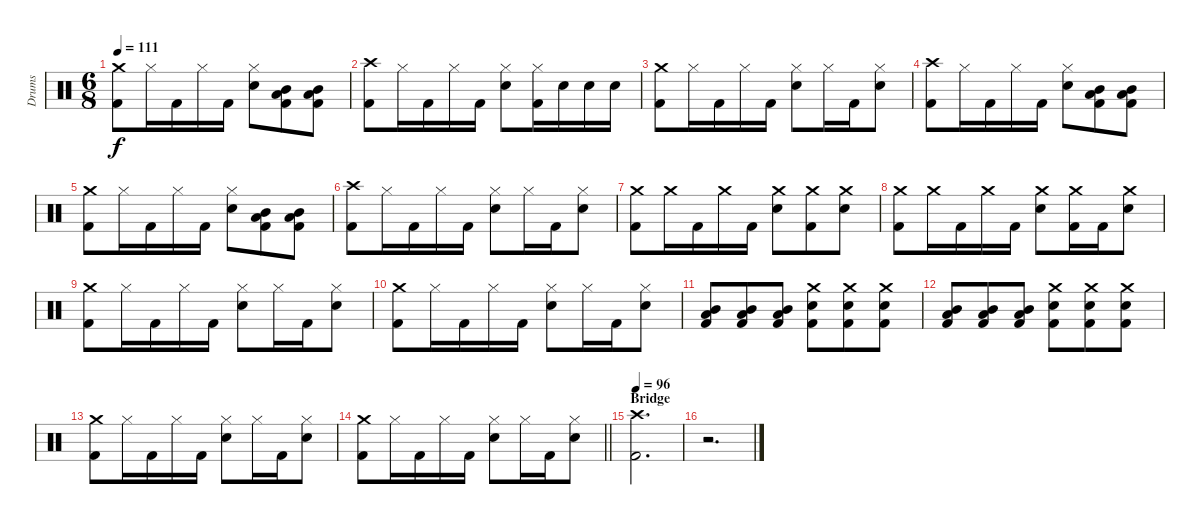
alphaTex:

\track ("Drums" "Drums") {instrument percussion}
\staff {score}
\articulation defaults
\ts (6 8)
\tempo 111
\clef neutral
\ks c
("Crash medium (hit)" "Kick (hit) 2").8{dy f} "Hi-Hat (closed)".16 "Kick (hit) 2".16 "Hi-Hat (closed)".16 "Kick (hit) 2".16 ("Hi-Hat (closed)" "Snare (hit) 2").8 ("Low Tom (hit)" "Mid Tom (hit)" "Kick (hit) 2").8 ("Mid Tom (hit)" "Low Tom (hit)" "Kick (hit) 2").8 |
("Crash high (hit)" "Kick (hit) 2").8 "Hi-Hat (closed)".16 "Kick (hit) 2".16 "Hi-Hat (closed)".16 "Kick (hit) 2".16 ("Hi-Hat (closed)" "Snare (hit) 2").8 ("Kick (hit) 2" "Hi-Hat (closed)").16 "Snare (hit) 2".16 "Snare (hit) 2".16 "Snare (hit) 2".16 |
("Crash medium (hit)" "Kick (hit) 2").8 "Hi-Hat (closed)".16 "Kick (hit) 2".16 "Hi-Hat (closed)".16 "Kick (hit) 2".16 ("Snare (hit) 2" "Hi-Hat (closed)").8 "Hi-Hat (closed)".16 "Kick (hit) 2".16 ("Hi-Hat (closed)" "Snare (hit) 2").8 |
("Crash high (hit)" "Kick (hit) 2").8 "Hi-Hat (closed)".16 "Kick (hit) 2".16 "Hi-Hat (closed)".16 "Kick (hit) 2".16 ("Hi-Hat (closed)" "Snare (hit) 2").8 ("Low Tom (hit)" "Mid Tom (hit)" "Kick (hit) 2").8 ("Mid Tom (hit)" "Low Tom (hit)" "Kick (hit) 2").8 |
("Crash medium (hit)" "Kick (hit) 2").8 "Hi-Hat (closed)".16 "Kick (hit) 2".16 "Hi-Hat (closed)".16 "Kick (hit) 2".16 ("Hi-Hat (closed)" "Snare (hit) 2").8 ("Low Tom (hit)" "Mid Tom (hit)" "Kick (hit) 2").8 ("Mid Tom (hit)" "Low Tom (hit)" "Kick (hit) 2").8 |
("Crash high (hit)" "Kick (hit) 2").8 "Hi-Hat (closed)".16 "Kick (hit) 2".16 "Hi-Hat (closed)".16 "Kick (hit) 2".16 ("Snare (hit) 2" "Hi-Hat (closed)").8 "Hi-Hat (closed)".16 "Kick (hit) 2".16 ("Hi-Hat (closed)" "Snare (hit) 2").8 |
("Crash medium (hit)" "Kick (hit) 2").8 "Crash medium (hit)".16 "Kick (hit) 2".16 "Crash medium (hit)".16 "Kick (hit) 2".16 ("Crash medium (hit)" "Snare (hit) 2").8 ("Crash medium (hit)" "Kick (hit) 2").8 ("Crash medium (hit)" "Snare (hit) 2").8 |
("Crash medium (hit)" "Kick (hit) 2").8 "Crash medium (hit)".16 "Kick (hit) 2".16 "Crash medium (hit)".16 "Kick (hit) 2".16 ("Crash medium (hit)" "Snare (hit) 2").8 ("Crash medium (hit)" "Kick (hit) 2").16 "Kick (hit) 2".16 ("Crash medium (hit)" "Snare (hit) 2").8 |
("Crash medium (hit)" "Kick (hit) 2").8 "Hi-Hat (closed)".16 "Kick (hit) 2".16 "Hi-Hat (closed)".16 "Kick (hit) 2".16 ("Snare (hit) 2" "Hi-Hat (closed)").8 "Hi-Hat (closed)".16 "Kick (hit) 2".16 ("Hi-Hat (closed)" "Snare (hit) 2").8 |
("Crash medium (hit)" "Kick (hit) 2").8 "Hi-Hat (closed)".16 "Kick (hit) 2".16 "Hi-Hat (closed)".16 "Kick (hit) 2".16 ("Snare (hit) 2" "Hi-Hat (closed)").8 "Hi-Hat (closed)".16 "Kick (hit) 2".16 ("Hi-Hat (closed)" "Snare (hit) 2").8 |
("Kick (hit) 2" "Low Tom (hit)" "Mid Tom (hit)").8 ("Kick (hit) 2" "Low Tom (hit)" "Mid Tom (hit)").8 ("Kick (hit) 2" "Low Tom (hit)" "Mid Tom (hit)").8 ("Kick (hit) 2" "Snare (hit) 2" "Crash medium (hit)").8 ("Kick (hit) 2" "Snare (hit) 2" "Crash medium (hit)").8 ("Kick (hit) 2" "Snare (hit) 2" "Crash medium (hit)").8 |
("Kick (hit) 2" "Low Tom (hit)" "Mid Tom (hit)").8 ("Kick (hit) 2" "Low Tom (hit)" "Mid Tom (hit)").8 ("Kick (hit) 2" "Low Tom (hit)" "Mid Tom (hit)").8 ("Kick (hit) 2" "Snare (hit) 2" "Crash medium (hit)").8 ("Kick (hit) 2" "Snare (hit) 2" "Crash medium (hit)").8 ("Kick (hit) 2" "Snare (hit) 2" "Crash medium (hit)").8 |
("Crash medium (hit)" "Kick (hit) 2").8 "Hi-Hat (closed)".16 "Kick (hit) 2".16 "Hi-Hat (closed)".16 "Kick (hit) 2".16 ("Snare (hit) 2" "Hi-Hat (closed)").8 "Hi-Hat (closed)".16 "Kick (hit) 2".16 ("Hi-Hat (closed)" "Snare (hit) 2").8 |
\barLineRight lightlight
("Crash medium (hit)" "Kick (hit) 2").8 "Hi-Hat (closed)".16 "Kick (hit) 2".16 "Hi-Hat (closed)".16 "Kick (hit) 2".16 ("Snare (hit) 2" "Hi-Hat (closed)").8 "Hi-Hat (closed)".16 "Kick (hit) 2".16 ("Hi-Hat (closed)" "Snare (hit) 2").8 |
\section ("" "Bridge")
\tempo 96
("Crash high (hit)" "Kick (hit) 2").2{d} |
r.2{d}
